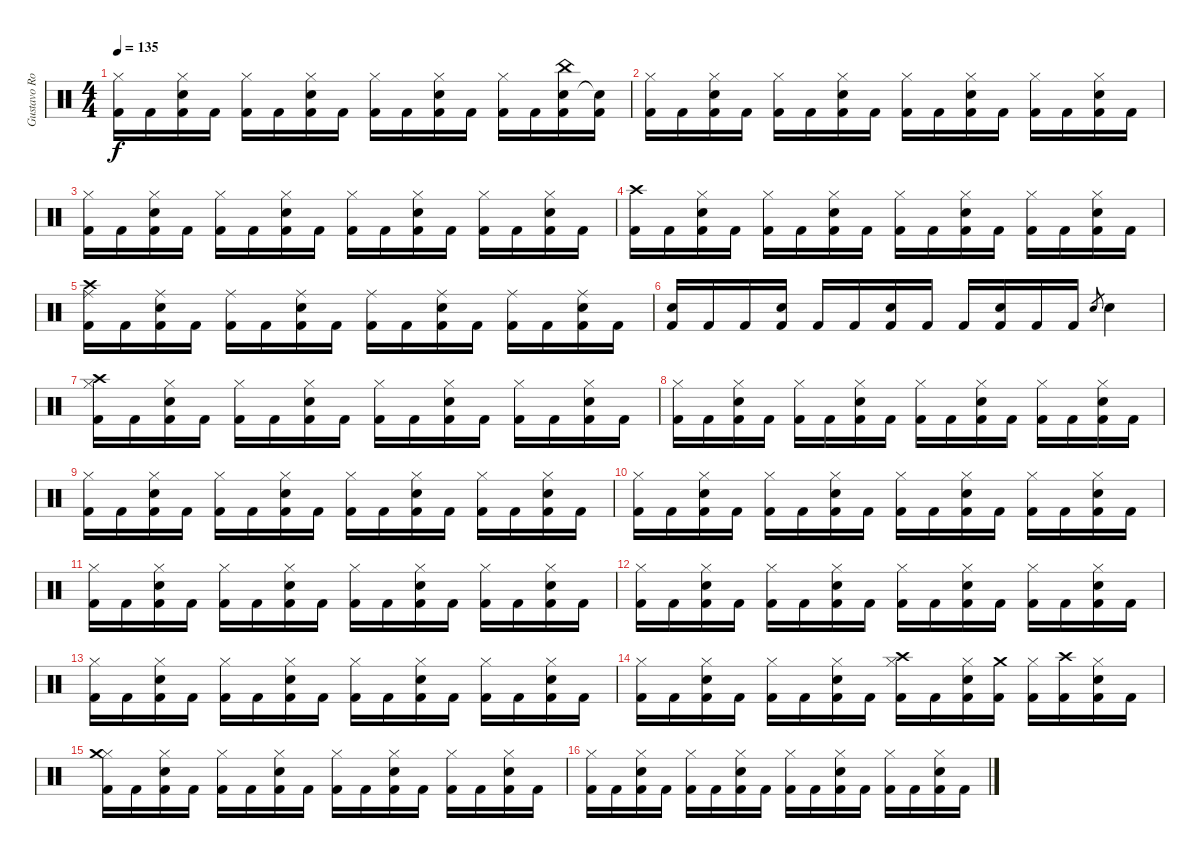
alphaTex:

\track ("Gustavo Rowek" "Gustavo Ro") {instrument percussion}
\staff {score}
\articulation defaults
\ts (4 4)
\tempo 135
\clef neutral
\ks c
("Kick (hit) 2" "Hi-Hat (closed)").16{dy f} "Kick (hit) 2".16 ("Kick (hit) 2" "Hi-Hat (closed)" "Electric Snare (hit)").16 "Kick (hit) 2".16 ("Kick (hit) 2" "Hi-Hat (closed)").16 "Kick (hit) 2".16 ("Kick (hit) 2" "Hi-Hat (closed)" "Electric Snare (hit)").16 "Kick (hit) 2".16 ("Kick (hit) 2" "Hi-Hat (closed)").16 "Kick (hit) 2".16 ("Kick (hit) 2" "Hi-Hat (closed)" "Electric Snare (hit)").16 "Kick (hit) 2".16 ("Kick (hit) 2" "Hi-Hat (closed)").16 "Kick (hit) 2".16 ("Kick (hit) 2" "Electric Snare (hit)" "China (hit)").16 ("Kick (hit) 2" "Snare (hit)"{t}).16 |
("Kick (hit) 2" "Hi-Hat (closed)").16 "Kick (hit) 2".16 ("Kick (hit) 2" "Hi-Hat (closed)" "Electric Snare (hit)").16 "Kick (hit) 2".16 ("Kick (hit) 2" "Hi-Hat (closed)").16 "Kick (hit) 2".16 ("Kick (hit) 2" "Hi-Hat (closed)" "Electric Snare (hit)").16 "Kick (hit) 2".16 ("Kick (hit) 2" "Hi-Hat (closed)").16 "Kick (hit) 2".16 ("Kick (hit) 2" "Hi-Hat (closed)" "Electric Snare (hit)").16 "Kick (hit) 2".16 ("Kick (hit) 2" "Hi-Hat (closed)").16 "Kick (hit) 2".16 ("Kick (hit) 2" "Hi-Hat (closed)" "Electric Snare (hit)").16 "Kick (hit) 2".16 |
("Kick (hit) 2" "Hi-Hat (closed)").16 "Kick (hit) 2".16 ("Kick (hit) 2" "Hi-Hat (closed)" "Electric Snare (hit)").16 "Kick (hit) 2".16 ("Kick (hit) 2" "Hi-Hat (closed)").16 "Kick (hit) 2".16 ("Kick (hit) 2" "Hi-Hat (closed)" "Electric Snare (hit)").16 "Kick (hit) 2".16 ("Kick (hit) 2" "Hi-Hat (closed)").16 "Kick (hit) 2".16 ("Kick (hit) 2" "Hi-Hat (closed)" "Electric Snare (hit)").16 "Kick (hit) 2".16 ("Kick (hit) 2" "Hi-Hat (closed)").16 "Kick (hit) 2".16 ("Kick (hit) 2" "Hi-Hat (closed)" "Electric Snare (hit)").16 "Kick (hit) 2".16 |
("Kick (hit) 2" "Crash high (hit)").16 "Kick (hit) 2".16 ("Kick (hit) 2" "Hi-Hat (closed)" "Electric Snare (hit)").16 "Kick (hit) 2".16 ("Kick (hit) 2" "Hi-Hat (closed)").16 "Kick (hit) 2".16 ("Kick (hit) 2" "Hi-Hat (closed)" "Electric Snare (hit)").16 "Kick (hit) 2".16 ("Kick (hit) 2" "Hi-Hat (closed)").16 "Kick (hit) 2".16 ("Kick (hit) 2" "Hi-Hat (closed)" "Electric Snare (hit)").16 "Kick (hit) 2".16 ("Kick (hit) 2" "Hi-Hat (closed)").16 "Kick (hit) 2".16 ("Kick (hit) 2" "Hi-Hat (closed)" "Electric Snare (hit)").16 "Kick (hit) 2".16 |
("Kick (hit) 2" "Ride (middle)" "Crash high (hit)").16 "Kick (hit) 2".16 ("Kick (hit) 2" "Ride (middle)" "Electric Snare (hit)").16 "Kick (hit) 2".16 ("Kick (hit) 2" "Ride (middle)").16 "Kick (hit) 2".16 ("Kick (hit) 2" "Ride (middle)" "Electric Snare (hit)").16 "Kick (hit) 2".16 ("Kick (hit) 2" "Ride (middle)").16 "Kick (hit) 2".16 ("Kick (hit) 2" "Ride (middle)" "Electric Snare (hit)").16 "Kick (hit) 2".16 ("Kick (hit) 2" "Ride (middle)").16 "Kick (hit) 2".16 ("Kick (hit) 2" "Ride (middle)" "Electric Snare (hit)").16 "Kick (hit) 2".16 |
("Kick (hit) 2" "Electric Snare (hit)").16 "Kick (hit) 2".16 "Kick (hit) 2".16 ("Kick (hit) 2" "Electric Snare (hit)").16 "Kick (hit) 2".16 "Kick (hit) 2".16 ("Kick (hit) 2" "Electric Snare (hit)").16 "Kick (hit) 2".16 "Kick (hit) 2".16 ("Kick (hit) 2" "Electric Snare (hit)").16 "Kick (hit) 2".16 "Kick (hit) 2".16 "Electric Snare (hit)".8{gr} "Electric Snare (hit)".4 |
("Kick (hit) 2" "Hi-Hat (closed)" "Crash high (hit)").16 "Kick (hit) 2".16 ("Kick (hit) 2" "Hi-Hat (closed)" "Electric Snare (hit)").16 "Kick (hit) 2".16 ("Kick (hit) 2" "Hi-Hat (closed)").16 "Kick (hit) 2".16 ("Kick (hit) 2" "Hi-Hat (closed)" "Electric Snare (hit)").16 "Kick (hit) 2".16 ("Kick (hit) 2" "Hi-Hat (closed)").16 "Kick (hit) 2".16 ("Kick (hit) 2" "Hi-Hat (closed)" "Electric Snare (hit)").16 "Kick (hit) 2".16 ("Kick (hit) 2" "Hi-Hat (closed)").16 "Kick (hit) 2".16 ("Kick (hit) 2" "Hi-Hat (closed)" "Electric Snare (hit)").16 "Kick (hit) 2".16 |
("Kick (hit) 2" "Hi-Hat (closed)").16 "Kick (hit) 2".16 ("Kick (hit) 2" "Hi-Hat (closed)" "Electric Snare (hit)").16 "Kick (hit) 2".16 ("Kick (hit) 2" "Hi-Hat (closed)").16 "Kick (hit) 2".16 ("Kick (hit) 2" "Hi-Hat (closed)" "Electric Snare (hit)").16 "Kick (hit) 2".16 ("Kick (hit) 2" "Hi-Hat (closed)").16 "Kick (hit) 2".16 ("Kick (hit) 2" "Hi-Hat (closed)" "Electric Snare (hit)").16 "Kick (hit) 2".16 ("Kick (hit) 2" "Hi-Hat (closed)").16 "Kick (hit) 2".16 ("Kick (hit) 2" "Hi-Hat (closed)" "Electric Snare (hit)").16 "Kick (hit) 2".16 |
("Kick (hit) 2" "Hi-Hat (closed)").16 "Kick (hit) 2".16 ("Kick (hit) 2" "Hi-Hat (closed)" "Electric Snare (hit)").16 "Kick (hit) 2".16 ("Kick (hit) 2" "Hi-Hat (closed)").16 "Kick (hit) 2".16 ("Kick (hit) 2" "Hi-Hat (closed)" "Electric Snare (hit)").16 "Kick (hit) 2".16 ("Kick (hit) 2" "Hi-Hat (closed)").16 "Kick (hit) 2".16 ("Kick (hit) 2" "Hi-Hat (closed)" "Electric Snare (hit)").16 "Kick (hit) 2".16 ("Kick (hit) 2" "Hi-Hat (closed)").16 "Kick (hit) 2".16 ("Kick (hit) 2" "Hi-Hat (closed)" "Electric Snare (hit)").16 "Kick (hit) 2".16 |
("Kick (hit) 2" "Hi-Hat (closed)").16 "Kick (hit) 2".16 ("Kick (hit) 2" "Hi-Hat (closed)" "Electric Snare (hit)").16 "Kick (hit) 2".16 ("Kick (hit) 2" "Hi-Hat (closed)").16 "Kick (hit) 2".16 ("Kick (hit) 2" "Hi-Hat (closed)" "Electric Snare (hit)").16 "Kick (hit) 2".16 ("Kick (hit) 2" "Hi-Hat (closed)").16 "Kick (hit) 2".16 ("Kick (hit) 2" "Hi-Hat (closed)" "Electric Snare (hit)").16 "Kick (hit) 2".16 ("Kick (hit) 2" "Hi-Hat (closed)").16 "Kick (hit) 2".16 ("Kick (hit) 2" "Hi-Hat (closed)" "Electric Snare (hit)").16 "Kick (hit) 2".16 |
("Kick (hit) 2" "Hi-Hat (closed)").16 "Kick (hit) 2".16 ("Kick (hit) 2" "Hi-Hat (closed)" "Electric Snare (hit)").16 "Kick (hit) 2".16 ("Kick (hit) 2" "Hi-Hat (closed)").16 "Kick (hit) 2".16 ("Kick (hit) 2" "Hi-Hat (closed)" "Electric Snare (hit)").16 "Kick (hit) 2".16 ("Kick (hit) 2" "Hi-Hat (closed)").16 "Kick (hit) 2".16 ("Kick (hit) 2" "Hi-Hat (closed)" "Electric Snare (hit)").16 "Kick (hit) 2".16 ("Kick (hit) 2" "Hi-Hat (closed)").16 "Kick (hit) 2".16 ("Kick (hit) 2" "Hi-Hat (closed)" "Electric Snare (hit)").16 "Kick (hit) 2".16 |
("Kick (hit) 2" "Hi-Hat (closed)").16 "Kick (hit) 2".16 ("Kick (hit) 2" "Hi-Hat (closed)" "Electric Snare (hit)").16 "Kick (hit) 2".16 ("Kick (hit) 2" "Hi-Hat (closed)").16 "Kick (hit) 2".16 ("Kick (hit) 2" "Hi-Hat (closed)" "Electric Snare (hit)").16 "Kick (hit) 2".16 ("Kick (hit) 2" "Hi-Hat (closed)").16 "Kick (hit) 2".16 ("Kick (hit) 2" "Hi-Hat (closed)" "Electric Snare (hit)").16 "Kick (hit) 2".16 ("Kick (hit) 2" "Hi-Hat (closed)").16 "Kick (hit) 2".16 ("Kick (hit) 2" "Hi-Hat (closed)" "Electric Snare (hit)").16 "Kick (hit) 2".16 |
("Kick (hit) 2" "Hi-Hat (closed)").16 "Kick (hit) 2".16 ("Kick (hit) 2" "Hi-Hat (closed)" "Electric Snare (hit)").16 "Kick (hit) 2".16 ("Kick (hit) 2" "Hi-Hat (closed)").16 "Kick (hit) 2".16 ("Kick (hit) 2" "Hi-Hat (closed)" "Electric Snare (hit)").16 "Kick (hit) 2".16 ("Kick (hit) 2" "Hi-Hat (closed)").16 "Kick (hit) 2".16 ("Kick (hit) 2" "Hi-Hat (closed)" "Electric Snare (hit)").16 "Kick (hit) 2".16 ("Kick (hit) 2" "Hi-Hat (closed)").16 "Kick (hit) 2".16 ("Kick (hit) 2" "Hi-Hat (closed)" "Electric Snare (hit)").16 "Kick (hit) 2".16 |
("Kick (hit) 2" "Hi-Hat (closed)").16 "Kick (hit) 2".16 ("Kick (hit) 2" "Hi-Hat (closed)" "Electric Snare (hit)").16 "Kick (hit) 2".16 ("Kick (hit) 2" "Hi-Hat (closed)").16 "Kick (hit) 2".16 ("Kick (hit) 2" "Hi-Hat (closed)" "Electric Snare (hit)").16 "Kick (hit) 2".16 ("Kick (hit) 2" "Hi-Hat (closed)" "Crash high (hit)").16 "Kick (hit) 2".16 ("Kick (hit) 2" "Hi-Hat (closed)" "Electric Snare (hit)").16 ("Kick (hit) 2" "Crash medium (hit)").16 ("Kick (hit) 2" "Hi-Hat (closed)").16 ("Kick (hit) 2" "Crash high (hit)").16 ("Kick (hit) 2" "Hi-Hat (closed)" "Electric Snare (hit)").16 "Kick (hit) 2".16 |
("Kick (hit) 2" "Hi-Hat (closed)" "Crash medium (hit)").16 "Kick (hit) 2".16 ("Kick (hit) 2" "Hi-Hat (closed)" "Electric Snare (hit)").16 "Kick (hit) 2".16 ("Kick (hit) 2" "Hi-Hat (closed)").16 "Kick (hit) 2".16 ("Kick (hit) 2" "Hi-Hat (closed)" "Electric Snare (hit)").16 "Kick (hit) 2".16 ("Kick (hit) 2" "Hi-Hat (closed)").16 "Kick (hit) 2".16 ("Kick (hit) 2" "Hi-Hat (closed)" "Electric Snare (hit)").16 "Kick (hit) 2".16 ("Kick (hit) 2" "Hi-Hat (closed)").16 "Kick (hit) 2".16 ("Kick (hit) 2" "Hi-Hat (closed)" "Electric Snare (hit)").16 "Kick (hit) 2".16 |
("Kick (hit) 2" "Hi-Hat (closed)").16 "Kick (hit) 2".16 ("Kick (hit) 2" "Hi-Hat (closed)" "Electric Snare (hit)").16 "Kick (hit) 2".16 ("Kick (hit) 2" "Hi-Hat (closed)").16 "Kick (hit) 2".16 ("Kick (hit) 2" "Hi-Hat (closed)" "Electric Snare (hit)").16 "Kick (hit) 2".16 ("Kick (hit) 2" "Hi-Hat (closed)").16 "Kick (hit) 2".16 ("Kick (hit) 2" "Hi-Hat (closed)" "Electric Snare (hit)").16 "Kick (hit) 2".16 ("Kick (hit) 2" "Hi-Hat (closed)").16 "Kick (hit) 2".16 ("Kick (hit) 2" "Hi-Hat (closed)" "Electric Snare (hit)").16 "Kick (hit) 2".16
